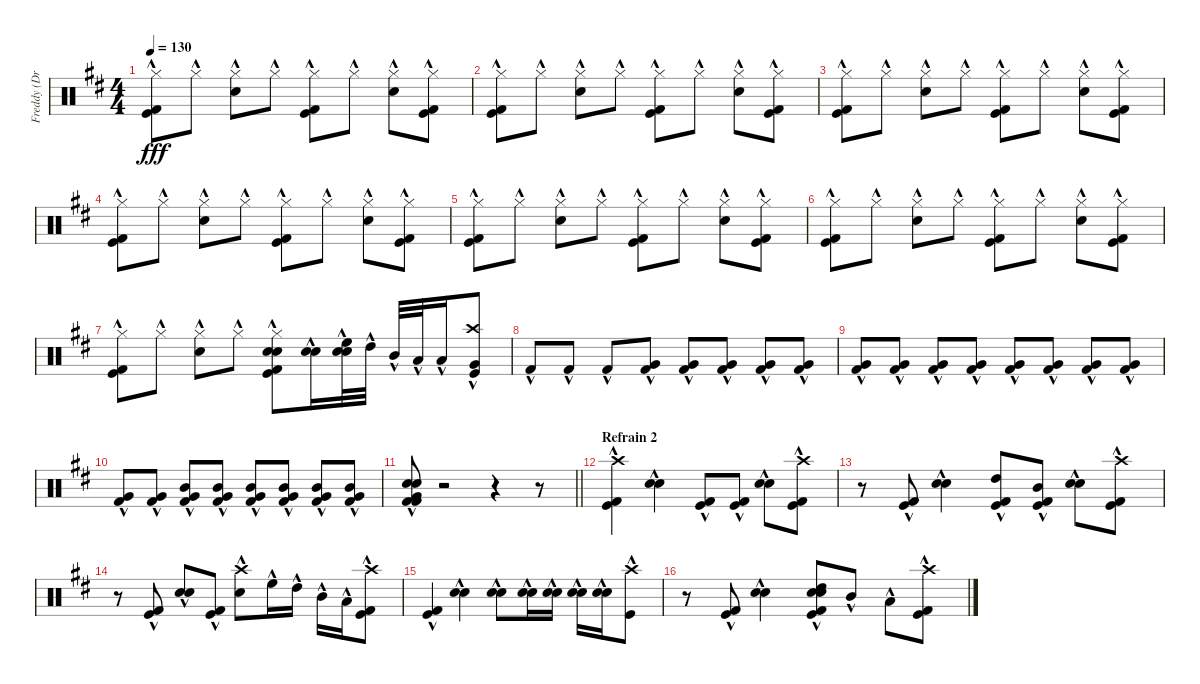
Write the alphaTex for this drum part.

\track ("Freddy (Drums)" "Freddy (Dr") {instrument percussion}
\staff {score}
\articulation defaults
\ts (4 4)
\tempo 130
\clef neutral
\ks d
("Hi-Hat (closed)"{hac} "Kick (hit)"{hac} "Kick (hit) 2"{hac}).8{dy fff} "Hi-Hat (closed)"{hac}.8 ("Hi-Hat (closed)"{hac} "Snare (hit) 2"{hac}).8 "Hi-Hat (closed)"{hac}.8 ("Hi-Hat (closed)"{hac} "Kick (hit)"{hac} "Kick (hit) 2"{hac}).8 "Hi-Hat (closed)"{hac}.8 ("Hi-Hat (closed)"{hac} "Snare (hit) 2"{hac}).8 ("Hi-Hat (closed)"{hac} "Kick (hit)"{hac} "Kick (hit) 2"{hac}).8 |
("Hi-Hat (closed)"{hac} "Kick (hit)"{hac} "Kick (hit) 2"{hac}).8 "Hi-Hat (closed)"{hac}.8 ("Hi-Hat (closed)"{hac} "Snare (hit) 2"{hac}).8 "Hi-Hat (closed)"{hac}.8 ("Hi-Hat (closed)"{hac} "Kick (hit)"{hac} "Kick (hit) 2"{hac}).8 "Hi-Hat (closed)"{hac}.8 ("Hi-Hat (closed)"{hac} "Snare (hit) 2"{hac}).8 ("Hi-Hat (closed)"{hac} "Kick (hit)"{hac} "Kick (hit) 2"{hac}).8 |
("Hi-Hat (closed)"{hac} "Kick (hit)"{hac} "Kick (hit) 2"{hac}).8 "Hi-Hat (closed)"{hac}.8 ("Hi-Hat (closed)"{hac} "Snare (hit) 2"{hac}).8 "Hi-Hat (closed)"{hac}.8 ("Hi-Hat (closed)"{hac} "Kick (hit)"{hac} "Kick (hit) 2"{hac}).8 "Hi-Hat (closed)"{hac}.8 ("Hi-Hat (closed)"{hac} "Snare (hit) 2"{hac}).8 ("Hi-Hat (closed)"{hac} "Kick (hit)"{hac} "Kick (hit) 2"{hac}).8 |
("Hi-Hat (closed)"{hac} "Kick (hit)"{hac} "Kick (hit) 2"{hac}).8 "Hi-Hat (closed)"{hac}.8 ("Hi-Hat (closed)"{hac} "Snare (hit) 2"{hac}).8 "Hi-Hat (closed)"{hac}.8 ("Hi-Hat (closed)"{hac} "Kick (hit)"{hac} "Kick (hit) 2"{hac}).8 "Hi-Hat (closed)"{hac}.8 ("Hi-Hat (closed)"{hac} "Snare (hit) 2"{hac}).8 ("Hi-Hat (closed)"{hac} "Kick (hit)"{hac} "Kick (hit) 2"{hac}).8 |
("Hi-Hat (closed)"{hac} "Kick (hit)"{hac} "Kick (hit) 2"{hac}).8 "Hi-Hat (closed)"{hac}.8 ("Hi-Hat (closed)"{hac} "Snare (hit) 2"{hac}).8 "Hi-Hat (closed)"{hac}.8 ("Hi-Hat (closed)"{hac} "Kick (hit)"{hac} "Kick (hit) 2"{hac}).8 "Hi-Hat (closed)"{hac}.8 ("Hi-Hat (closed)"{hac} "Snare (hit) 2"{hac}).8 ("Hi-Hat (closed)"{hac} "Kick (hit)"{hac} "Kick (hit) 2"{hac}).8 |
("Hi-Hat (closed)"{hac} "Kick (hit)"{hac} "Kick (hit) 2"{hac}).8 "Hi-Hat (closed)"{hac}.8 ("Hi-Hat (closed)"{hac} "Snare (hit) 2"{hac}).8 "Hi-Hat (closed)"{hac}.8 ("Hi-Hat (closed)"{hac} "Kick (hit)"{hac} "Kick (hit) 2"{hac}).8 "Hi-Hat (closed)"{hac}.8 ("Hi-Hat (closed)"{hac} "Snare (hit) 2"{hac}).8 ("Hi-Hat (closed)"{hac} "Kick (hit)"{hac} "Kick (hit) 2"{hac}).8 |
("Hi-Hat (closed)"{hac} "Kick (hit)"{hac} "Kick (hit) 2"{hac}).8 "Hi-Hat (closed)"{hac}.8 ("Hi-Hat (closed)"{hac} "Snare (hit) 2"{hac}).8 "Hi-Hat (closed)"{hac}.8 ("Electric Snare (hit)"{hac} "Snare (hit) 2"{hac} "Hi-Hat (closed)"{hac} "Kick (hit)"{hac} "Kick (hit) 2"{hac}).8 ("Electric Snare (hit)"{hac} "Snare (hit) 2"{hac}).16 ("High Floor Tom (hit)"{hac} "Electric Snare (hit)"{hac} "Snare (hit) 2"{hac}).32 "High Tom (hit)"{hac}.32 "Mid Tom (hit)"{hac}.32 "Low Tom (hit)"{hac}.32 "Low Tom (hit)"{hac}.16 ("Crash high (hit)"{hac} "Very Low Tom (hit)"{hac} "Kick (hit)"{hac}).8 |
"Kick (hit) 2"{hac}.8 "Kick (hit) 2"{hac}.8 "Kick (hit) 2"{hac}.8 ("Very Low Tom (hit)"{hac} "Kick (hit) 2"{hac}).8 ("Very Low Tom (hit)"{hac} "Kick (hit) 2"{hac}).8 ("Very Low Tom (hit)"{hac} "Kick (hit) 2"{hac}).8 ("Very Low Tom (hit)"{hac} "Kick (hit) 2"{hac}).8 ("Very Low Tom (hit)"{hac} "Kick (hit) 2"{hac}).8 |
("Very Low Tom (hit)"{hac} "Kick (hit) 2"{hac}).8 ("Very Low Tom (hit)"{hac} "Kick (hit) 2"{hac}).8 ("Very Low Tom (hit)"{hac} "Kick (hit) 2"{hac}).8 ("Very Low Tom (hit)"{hac} "Kick (hit) 2"{hac}).8 ("Very Low Tom (hit)"{hac} "Kick (hit) 2"{hac}).8 ("Very Low Tom (hit)"{hac} "Kick (hit) 2"{hac}).8 ("Very Low Tom (hit)"{hac} "Kick (hit) 2"{hac}).8 ("Very Low Tom (hit)"{hac} "Kick (hit) 2"{hac}).8 |
("Very Low Tom (hit)"{hac} "Kick (hit) 2"{hac}).8 ("Very Low Tom (hit)"{hac} "Kick (hit) 2"{hac}).8 ("Mid Tom (hit)"{hac} "Very Low Tom (hit)"{hac} "Kick (hit) 2"{hac}).8 ("Mid Tom (hit)"{hac} "Very Low Tom (hit)"{hac} "Kick (hit) 2"{hac}).8 ("Mid Tom (hit)"{hac} "Very Low Tom (hit)"{hac} "Kick (hit) 2"{hac}).8 ("Mid Tom (hit)"{hac} "Very Low Tom (hit)"{hac} "Kick (hit) 2"{hac}).8 ("Mid Tom (hit)"{hac} "Very Low Tom (hit)"{hac} "Kick (hit) 2"{hac}).8 ("Mid Tom (hit)"{hac} "Very Low Tom (hit)"{hac} "Kick (hit) 2"{hac}).8 |
\barLineRight lightlight
("Electric Snare (hit)"{hac} "Snare (hit) 2"{hac} "Very Low Tom (hit)"{hac} "Kick (hit) 2"{hac} "Kick (hit) 2"{hac}).8 r.2 r.4 r.8 |
\section ("" "Refrain 2")
("Crash high (hit)"{hac} "Kick (hit)"{hac} "Kick (hit) 2"{hac}).4 ("Electric Snare (hit)"{hac} "Snare (hit) 2"{hac}).4 ("Kick (hit)"{hac} "Kick (hit) 2"{hac}).8 ("Kick (hit)"{hac} "Kick (hit) 2"{hac}).8 ("Hand Clap (hit)"{hac} "Electric Snare (hit)"{hac}).8 ("Crash high (hit)"{hac} "Kick (hit)"{hac} "Kick (hit) 2"{hac}).8 |
r.8 ("Kick (hit)"{hac} "Kick (hit) 2"{hac}).8 ("Electric Snare (hit)"{hac} "Snare (hit) 2"{hac}).4 ("High Tom (hit)"{hac} "Kick (hit)"{hac} "Kick (hit) 2"{hac}).8 ("Mid Tom (hit)"{hac} "Kick (hit)"{hac} "Kick (hit) 2"{hac}).8 ("Snare (hit) 2"{hac} "Electric Snare (hit)"{hac}).8 ("Crash high (hit)"{hac} "Kick (hit)"{hac} "Kick (hit) 2"{hac}).8 |
r.8 ("Kick (hit)"{hac} "Kick (hit) 2"{hac}).8 ("Electric Snare (hit)"{hac} "Snare (hit) 2"{hac}).8 ("Kick (hit)"{hac} "Kick (hit) 2"{hac}).8 ("Snare (hit) 2"{hac} "Crash high (hit)"{hac}).8 "High Floor Tom (hit)"{hac}.16 "High Tom (hit)"{hac}.16 "Mid Tom (hit)"{hac}.16 "Low Tom (hit)"{hac}.16 ("Kick (hit)"{hac} "Kick (hit) 2"{hac} "Crash high (hit)"{hac}).8 |
("Kick (hit)"{hac} "Kick (hit) 2"{hac}).4 ("Snare (hit) 2"{hac} "Electric Snare (hit)"{hac}).4 ("Snare (hit) 2"{hac} "Electric Snare (hit)"{hac}).8 ("Snare (hit) 2"{hac} "Electric Snare (hit)"{hac}).16 ("Snare (hit) 2"{hac} "Hand Clap (hit)"{hac}).16 ("Snare (hit) 2"{hac} "Electric Snare (hit)"{hac}).16 ("Snare (hit) 2"{hac} "Electric Snare (hit)"{hac}).16 ("Crash high (hit)"{hac} "Kick (hit)"{hac}).8 |
r.8 ("Kick (hit)"{hac} "Kick (hit) 2"{hac}).8 ("Electric Snare (hit)"{hac} "Snare (hit) 2"{hac}).4 ("Kick (hit)"{hac} "Kick (hit) 2"{hac} "Snare (hit) 2"{hac} "Electric Snare (hit)"{hac} "High Tom (hit)"{hac}).8 "Mid Tom (hit)"{hac}.8 "Low Tom (hit)"{hac}.8 ("Crash high (hit)"{hac} "Kick (hit)"{hac} "Kick (hit) 2"{hac}).8
